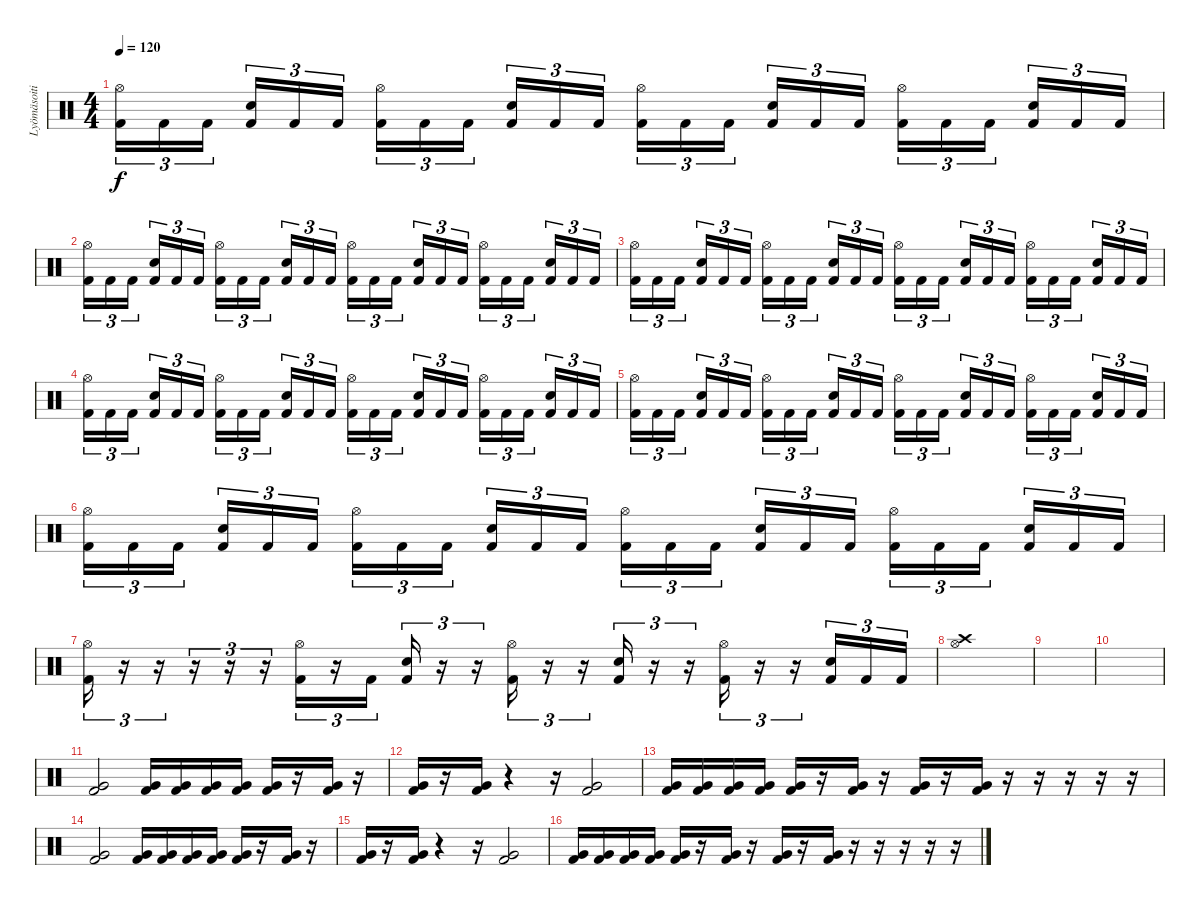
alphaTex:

\track ("Lyömäsoitin" "Lyömäsoiti") {instrument percussion}
\staff {score}
\articulation defaults
\ts (4 4)
\tempo 120
\clef neutral
\ks c
("Hi-Hat (open)" "Kick (hit) 2").16{tu (3 2) dy f} "Kick (hit) 2".16{tu (3 2)} "Kick (hit) 2".16{tu (3 2) beam splitsecondary} ("Electric Snare (hit)" "Kick (hit) 2").16{tu (3 2)} "Kick (hit) 2".16{tu (3 2)} "Kick (hit) 2".16{tu (3 2)} ("Hi-Hat (open)" "Kick (hit) 2").16{tu (3 2)} "Kick (hit) 2".16{tu (3 2)} "Kick (hit) 2".16{tu (3 2) beam splitsecondary} ("Electric Snare (hit)" "Kick (hit) 2").16{tu (3 2)} "Kick (hit) 2".16{tu (3 2)} "Kick (hit) 2".16{tu (3 2)} ("Hi-Hat (open)" "Kick (hit) 2").16{tu (3 2)} "Kick (hit) 2".16{tu (3 2)} "Kick (hit) 2".16{tu (3 2) beam splitsecondary} ("Electric Snare (hit)" "Kick (hit) 2").16{tu (3 2)} "Kick (hit) 2".16{tu (3 2)} "Kick (hit) 2".16{tu (3 2)} ("Hi-Hat (open)" "Kick (hit) 2").16{tu (3 2)} "Kick (hit) 2".16{tu (3 2)} "Kick (hit) 2".16{tu (3 2) beam splitsecondary} ("Electric Snare (hit)" "Kick (hit) 2").16{tu (3 2)} "Kick (hit) 2".16{tu (3 2)} "Kick (hit) 2".16{tu (3 2)} |
("Hi-Hat (open)" "Kick (hit) 2").16{tu (3 2)} "Kick (hit) 2".16{tu (3 2)} "Kick (hit) 2".16{tu (3 2) beam splitsecondary} ("Electric Snare (hit)" "Kick (hit) 2").16{tu (3 2)} "Kick (hit) 2".16{tu (3 2)} "Kick (hit) 2".16{tu (3 2)} ("Hi-Hat (open)" "Kick (hit) 2").16{tu (3 2)} "Kick (hit) 2".16{tu (3 2)} "Kick (hit) 2".16{tu (3 2) beam splitsecondary} ("Electric Snare (hit)" "Kick (hit) 2").16{tu (3 2)} "Kick (hit) 2".16{tu (3 2)} "Kick (hit) 2".16{tu (3 2)} ("Hi-Hat (open)" "Kick (hit) 2").16{tu (3 2)} "Kick (hit) 2".16{tu (3 2)} "Kick (hit) 2".16{tu (3 2) beam splitsecondary} ("Electric Snare (hit)" "Kick (hit) 2").16{tu (3 2)} "Kick (hit) 2".16{tu (3 2)} "Kick (hit) 2".16{tu (3 2)} ("Hi-Hat (open)" "Kick (hit) 2").16{tu (3 2)} "Kick (hit) 2".16{tu (3 2)} "Kick (hit) 2".16{tu (3 2) beam splitsecondary} ("Electric Snare (hit)" "Kick (hit) 2").16{tu (3 2)} "Kick (hit) 2".16{tu (3 2)} "Kick (hit) 2".16{tu (3 2)} |
("Hi-Hat (open)" "Kick (hit) 2").16{tu (3 2)} "Kick (hit) 2".16{tu (3 2)} "Kick (hit) 2".16{tu (3 2) beam splitsecondary} ("Electric Snare (hit)" "Kick (hit) 2").16{tu (3 2)} "Kick (hit) 2".16{tu (3 2)} "Kick (hit) 2".16{tu (3 2)} ("Hi-Hat (open)" "Kick (hit) 2").16{tu (3 2)} "Kick (hit) 2".16{tu (3 2)} "Kick (hit) 2".16{tu (3 2) beam splitsecondary} ("Electric Snare (hit)" "Kick (hit) 2").16{tu (3 2)} "Kick (hit) 2".16{tu (3 2)} "Kick (hit) 2".16{tu (3 2)} ("Hi-Hat (open)" "Kick (hit) 2").16{tu (3 2)} "Kick (hit) 2".16{tu (3 2)} "Kick (hit) 2".16{tu (3 2) beam splitsecondary} ("Electric Snare (hit)" "Kick (hit) 2").16{tu (3 2)} "Kick (hit) 2".16{tu (3 2)} "Kick (hit) 2".16{tu (3 2)} ("Hi-Hat (open)" "Kick (hit) 2").16{tu (3 2)} "Kick (hit) 2".16{tu (3 2)} "Kick (hit) 2".16{tu (3 2) beam splitsecondary} ("Electric Snare (hit)" "Kick (hit) 2").16{tu (3 2)} "Kick (hit) 2".16{tu (3 2)} "Kick (hit) 2".16{tu (3 2)} |
("Hi-Hat (open)" "Kick (hit) 2").16{tu (3 2)} "Kick (hit) 2".16{tu (3 2)} "Kick (hit) 2".16{tu (3 2) beam splitsecondary} ("Electric Snare (hit)" "Kick (hit) 2").16{tu (3 2)} "Kick (hit) 2".16{tu (3 2)} "Kick (hit) 2".16{tu (3 2)} ("Hi-Hat (open)" "Kick (hit) 2").16{tu (3 2)} "Kick (hit) 2".16{tu (3 2)} "Kick (hit) 2".16{tu (3 2) beam splitsecondary} ("Electric Snare (hit)" "Kick (hit) 2").16{tu (3 2)} "Kick (hit) 2".16{tu (3 2)} "Kick (hit) 2".16{tu (3 2)} ("Hi-Hat (open)" "Kick (hit) 2").16{tu (3 2)} "Kick (hit) 2".16{tu (3 2)} "Kick (hit) 2".16{tu (3 2) beam splitsecondary} ("Electric Snare (hit)" "Kick (hit) 2").16{tu (3 2)} "Kick (hit) 2".16{tu (3 2)} "Kick (hit) 2".16{tu (3 2)} ("Hi-Hat (open)" "Kick (hit) 2").16{tu (3 2)} "Kick (hit) 2".16{tu (3 2)} "Kick (hit) 2".16{tu (3 2) beam splitsecondary} ("Electric Snare (hit)" "Kick (hit) 2").16{tu (3 2)} "Kick (hit) 2".16{tu (3 2)} "Kick (hit) 2".16{tu (3 2)} |
("Hi-Hat (open)" "Kick (hit) 2").16{tu (3 2)} "Kick (hit) 2".16{tu (3 2)} "Kick (hit) 2".16{tu (3 2) beam splitsecondary} ("Electric Snare (hit)" "Kick (hit) 2").16{tu (3 2)} "Kick (hit) 2".16{tu (3 2)} "Kick (hit) 2".16{tu (3 2)} ("Hi-Hat (open)" "Kick (hit) 2").16{tu (3 2)} "Kick (hit) 2".16{tu (3 2)} "Kick (hit) 2".16{tu (3 2) beam splitsecondary} ("Electric Snare (hit)" "Kick (hit) 2").16{tu (3 2)} "Kick (hit) 2".16{tu (3 2)} "Kick (hit) 2".16{tu (3 2)} ("Hi-Hat (open)" "Kick (hit) 2").16{tu (3 2)} "Kick (hit) 2".16{tu (3 2)} "Kick (hit) 2".16{tu (3 2) beam splitsecondary} ("Electric Snare (hit)" "Kick (hit) 2").16{tu (3 2)} "Kick (hit) 2".16{tu (3 2)} "Kick (hit) 2".16{tu (3 2)} ("Hi-Hat (open)" "Kick (hit) 2").16{tu (3 2)} "Kick (hit) 2".16{tu (3 2)} "Kick (hit) 2".16{tu (3 2) beam splitsecondary} ("Electric Snare (hit)" "Kick (hit) 2").16{tu (3 2)} "Kick (hit) 2".16{tu (3 2)} "Kick (hit) 2".16{tu (3 2)} |
("Hi-Hat (open)" "Kick (hit) 2").16{tu (3 2)} "Kick (hit) 2".16{tu (3 2)} "Kick (hit) 2".16{tu (3 2) beam splitsecondary} ("Electric Snare (hit)" "Kick (hit) 2").16{tu (3 2)} "Kick (hit) 2".16{tu (3 2)} "Kick (hit) 2".16{tu (3 2)} ("Hi-Hat (open)" "Kick (hit) 2").16{tu (3 2)} "Kick (hit) 2".16{tu (3 2)} "Kick (hit) 2".16{tu (3 2) beam splitsecondary} ("Electric Snare (hit)" "Kick (hit) 2").16{tu (3 2)} "Kick (hit) 2".16{tu (3 2)} "Kick (hit) 2".16{tu (3 2)} ("Hi-Hat (open)" "Kick (hit) 2").16{tu (3 2)} "Kick (hit) 2".16{tu (3 2)} "Kick (hit) 2".16{tu (3 2) beam splitsecondary} ("Electric Snare (hit)" "Kick (hit) 2").16{tu (3 2)} "Kick (hit) 2".16{tu (3 2)} "Kick (hit) 2".16{tu (3 2)} ("Hi-Hat (open)" "Kick (hit) 2").16{tu (3 2)} "Kick (hit) 2".16{tu (3 2)} "Kick (hit) 2".16{tu (3 2) beam splitsecondary} ("Electric Snare (hit)" "Kick (hit) 2").16{tu (3 2)} "Kick (hit) 2".16{tu (3 2)} "Kick (hit) 2".16{tu (3 2)} |
("Hi-Hat (open)" "Kick (hit) 2").16{tu (3 2)} r.16{tu (3 2)} r.16{tu (3 2)} r.16{tu (3 2)} r.16{tu (3 2)} r.16{tu (3 2)} ("Hi-Hat (open)" "Kick (hit) 2").16{tu (3 2)} r.16{tu (3 2)} "Kick (hit) 2".16{tu (3 2)} ("Electric Snare (hit)" "Kick (hit) 2").16{tu (3 2)} r.16{tu (3 2)} r.16{tu (3 2)} ("Hi-Hat (open)" "Kick (hit) 2").16{tu (3 2)} r.16{tu (3 2)} r.16{tu (3 2)} ("Electric Snare (hit)" "Kick (hit) 2").16{tu (3 2)} r.16{tu (3 2)} r.16{tu (3 2)} ("Hi-Hat (open)" "Kick (hit) 2").16{tu (3 2)} r.16{tu (3 2)} r.16{tu (3 2)} ("Electric Snare (hit)" "Kick (hit) 2").16{tu (3 2)} "Kick (hit) 2".16{tu (3 2)} "Kick (hit) 2".16{tu (3 2)} |
("Crash high (hit)" "Hi-Hat (open)").1 |
|
|
("Very Low Tom (hit)" "Kick (hit) 2").2 ("Very Low Tom (hit)" "Kick (hit) 2").16 ("Very Low Tom (hit)" "Kick (hit) 2").16 ("Very Low Tom (hit)" "Kick (hit) 2").16 ("Very Low Tom (hit)" "Kick (hit) 2").16 ("Very Low Tom (hit)" "Kick (hit) 2").16 r.16 ("Very Low Tom (hit)" "Kick (hit) 2").16 r.16 |
("Very Low Tom (hit)" "Kick (hit) 2").16 r.16 ("Very Low Tom (hit)" "Kick (hit) 2").16 r.4 r.16 ("Very Low Tom (hit)" "Kick (hit) 2").2 |
("Very Low Tom (hit)" "Kick (hit) 2").16 ("Very Low Tom (hit)" "Kick (hit) 2").16 ("Very Low Tom (hit)" "Kick (hit) 2").16 ("Very Low Tom (hit)" "Kick (hit) 2").16 ("Very Low Tom (hit)" "Kick (hit) 2").16 r.16 ("Very Low Tom (hit)" "Kick (hit) 2").16 r.16 ("Very Low Tom (hit)" "Kick (hit) 2").16 r.16 ("Very Low Tom (hit)" "Kick (hit) 2").16 r.16 r.16 r.16 r.16 r.16 |
("Very Low Tom (hit)" "Kick (hit) 2").2 ("Very Low Tom (hit)" "Kick (hit) 2").16 ("Very Low Tom (hit)" "Kick (hit) 2").16 ("Very Low Tom (hit)" "Kick (hit) 2").16 ("Very Low Tom (hit)" "Kick (hit) 2").16 ("Very Low Tom (hit)" "Kick (hit) 2").16 r.16 ("Very Low Tom (hit)" "Kick (hit) 2").16 r.16 |
("Very Low Tom (hit)" "Kick (hit) 2").16 r.16 ("Very Low Tom (hit)" "Kick (hit) 2").16 r.4 r.16 ("Very Low Tom (hit)" "Kick (hit) 2").2 |
("Very Low Tom (hit)" "Kick (hit) 2").16 ("Very Low Tom (hit)" "Kick (hit) 2").16 ("Very Low Tom (hit)" "Kick (hit) 2").16 ("Very Low Tom (hit)" "Kick (hit) 2").16 ("Very Low Tom (hit)" "Kick (hit) 2").16 r.16 ("Very Low Tom (hit)" "Kick (hit) 2").16 r.16 ("Very Low Tom (hit)" "Kick (hit) 2").16 r.16 ("Very Low Tom (hit)" "Kick (hit) 2").16 r.16 r.16 r.16 r.16 r.16
